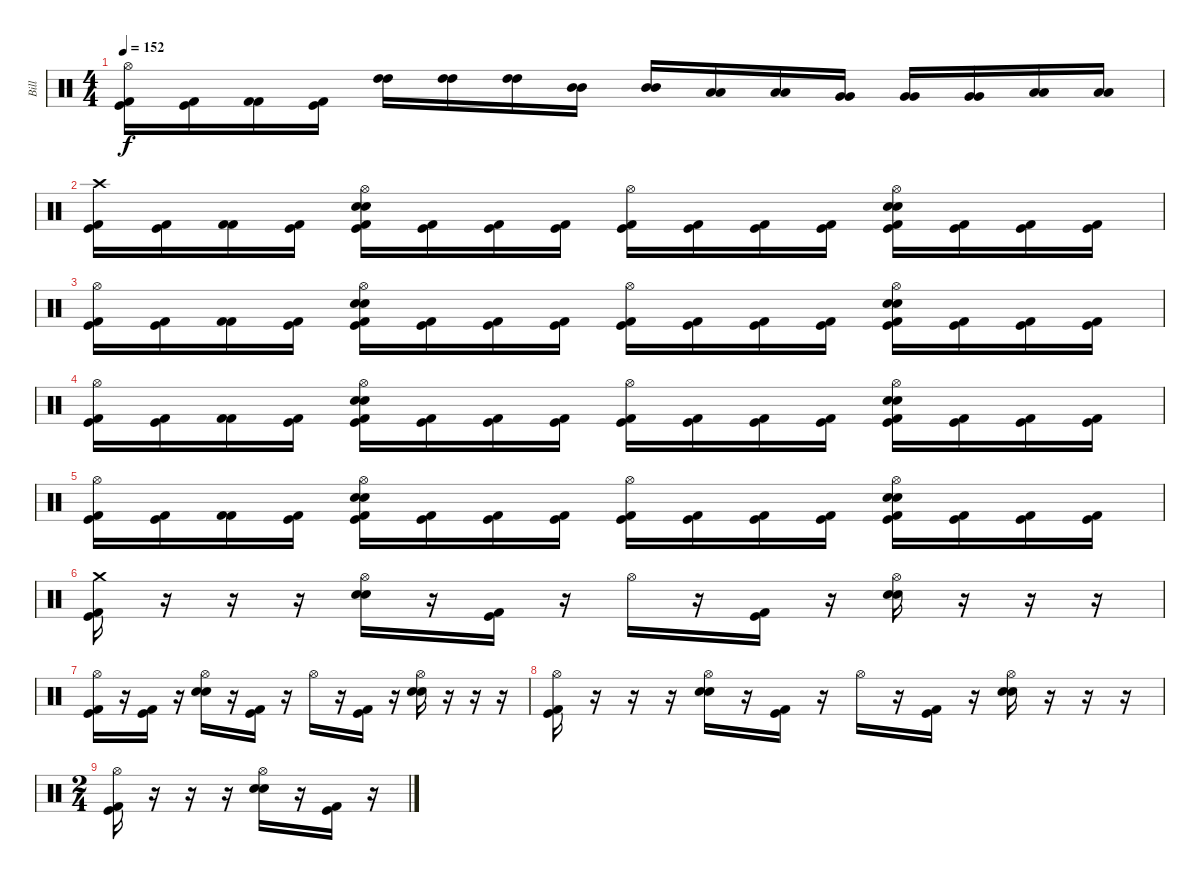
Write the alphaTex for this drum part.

\track ("Bill" "Bill") {instrument percussion}
\staff {score}
\articulation defaults
\ts (4 4)
\tempo 152
\clef neutral
\ks c
("Hi-Hat (open)" "Kick (hit) 2" "Kick (hit)").16{dy f} ("Kick (hit) 2" "Kick (hit)").16 ("Kick (hit) 2" "Kick (hit) 2").16 ("Kick (hit) 2" "Kick (hit)").16 ("High Tom (hit)" "High Tom (hit)").16 ("High Tom (hit)" "High Tom (hit)").16 ("High Tom (hit)" "High Tom (hit)").16 ("Mid Tom (hit)" "Mid Tom (hit)").16 ("Mid Tom (hit)" "Mid Tom (hit)").16 ("Low Tom (hit)" "Low Tom (hit)").16 ("Low Tom (hit)" "Low Tom (hit)").16 ("Very Low Tom (hit)" "Very Low Tom (hit)").16 ("Very Low Tom (hit)" "Very Low Tom (hit)").16 ("Very Low Tom (hit)" "Very Low Tom (hit)").16 ("Low Floor Tom (hit)" "Low Floor Tom (hit)").16 ("Low Floor Tom (hit)" "Low Floor Tom (hit)").16 |
("Crash high (hit)" "Kick (hit) 2" "Kick (hit)").16 ("Kick (hit) 2" "Kick (hit)").16 ("Kick (hit) 2" "Kick (hit) 2").16 ("Kick (hit) 2" "Kick (hit)").16 ("Hi-Hat (open)" "Snare (hit) 2" "Electric Snare (hit)" "Kick (hit) 2" "Kick (hit)").16 ("Kick (hit) 2" "Kick (hit)").16 ("Kick (hit) 2" "Kick (hit)").16 ("Kick (hit) 2" "Kick (hit)").16 ("Hi-Hat (open)" "Kick (hit) 2" "Kick (hit)").16 ("Kick (hit) 2" "Kick (hit)").16 ("Kick (hit) 2" "Kick (hit)").16 ("Kick (hit) 2" "Kick (hit)").16 ("Hi-Hat (open)" "Snare (hit) 2" "Electric Snare (hit)" "Kick (hit) 2" "Kick (hit)").16 ("Kick (hit) 2" "Kick (hit)").16 ("Kick (hit) 2" "Kick (hit)").16 ("Kick (hit) 2" "Kick (hit)").16 |
("Hi-Hat (open)" "Kick (hit) 2" "Kick (hit)").16 ("Kick (hit) 2" "Kick (hit)").16 ("Kick (hit) 2" "Kick (hit) 2").16 ("Kick (hit) 2" "Kick (hit)").16 ("Hi-Hat (open)" "Snare (hit) 2" "Electric Snare (hit)" "Kick (hit) 2" "Kick (hit)").16 ("Kick (hit) 2" "Kick (hit)").16 ("Kick (hit) 2" "Kick (hit)").16 ("Kick (hit) 2" "Kick (hit)").16 ("Hi-Hat (open)" "Kick (hit) 2" "Kick (hit)").16 ("Kick (hit) 2" "Kick (hit)").16 ("Kick (hit) 2" "Kick (hit)").16 ("Kick (hit) 2" "Kick (hit)").16 ("Hi-Hat (open)" "Snare (hit) 2" "Electric Snare (hit)" "Kick (hit) 2" "Kick (hit)").16 ("Kick (hit) 2" "Kick (hit)").16 ("Kick (hit) 2" "Kick (hit)").16 ("Kick (hit) 2" "Kick (hit)").16 |
("Hi-Hat (open)" "Kick (hit) 2" "Kick (hit)").16 ("Kick (hit) 2" "Kick (hit)").16 ("Kick (hit) 2" "Kick (hit) 2").16 ("Kick (hit) 2" "Kick (hit)").16 ("Hi-Hat (open)" "Snare (hit) 2" "Electric Snare (hit)" "Kick (hit) 2" "Kick (hit)").16 ("Kick (hit) 2" "Kick (hit)").16 ("Kick (hit) 2" "Kick (hit)").16 ("Kick (hit) 2" "Kick (hit)").16 ("Hi-Hat (open)" "Kick (hit) 2" "Kick (hit)").16 ("Kick (hit) 2" "Kick (hit)").16 ("Kick (hit) 2" "Kick (hit)").16 ("Kick (hit) 2" "Kick (hit)").16 ("Hi-Hat (open)" "Snare (hit) 2" "Electric Snare (hit)" "Kick (hit) 2" "Kick (hit)").16 ("Kick (hit) 2" "Kick (hit)").16 ("Kick (hit) 2" "Kick (hit)").16 ("Kick (hit) 2" "Kick (hit)").16 |
("Hi-Hat (open)" "Kick (hit) 2" "Kick (hit)").16 ("Kick (hit) 2" "Kick (hit)").16 ("Kick (hit) 2" "Kick (hit) 2").16 ("Kick (hit) 2" "Kick (hit)").16 ("Hi-Hat (open)" "Snare (hit) 2" "Electric Snare (hit)" "Kick (hit) 2" "Kick (hit)").16 ("Kick (hit) 2" "Kick (hit)").16 ("Kick (hit) 2" "Kick (hit)").16 ("Kick (hit) 2" "Kick (hit)").16 ("Hi-Hat (open)" "Kick (hit) 2" "Kick (hit)").16 ("Kick (hit) 2" "Kick (hit)").16 ("Kick (hit) 2" "Kick (hit)").16 ("Kick (hit) 2" "Kick (hit)").16 ("Hi-Hat (open)" "Snare (hit) 2" "Electric Snare (hit)" "Kick (hit) 2" "Kick (hit)").16 ("Kick (hit) 2" "Kick (hit)").16 ("Kick (hit) 2" "Kick (hit)").16 ("Kick (hit) 2" "Kick (hit)").16 |
("Crash medium (hit)" "Kick (hit)" "Kick (hit) 2").16 r.16 r.16 r.16 ("Hi-Hat (open)" "Snare (hit) 2" "Electric Snare (hit)").16 r.16 ("Kick (hit)" "Kick (hit) 2").16 r.16 "Hi-Hat (open)".16 r.16 ("Kick (hit)" "Kick (hit) 2").16 r.16 ("Hi-Hat (open)" "Snare (hit) 2" "Electric Snare (hit)").16 r.16 r.16 r.16 |
("Hi-Hat (open)" "Kick (hit)" "Kick (hit) 2").16 r.16 ("Kick (hit)" "Kick (hit) 2").16 r.16 ("Hi-Hat (open)" "Snare (hit) 2" "Electric Snare (hit)").16 r.16 ("Kick (hit)" "Kick (hit) 2").16 r.16 "Hi-Hat (open)".16 r.16 ("Kick (hit)" "Kick (hit) 2").16 r.16 ("Hi-Hat (open)" "Snare (hit) 2" "Electric Snare (hit)").16 r.16 r.16 r.16 |
("Hi-Hat (open)" "Kick (hit)" "Kick (hit) 2").16 r.16 r.16 r.16 ("Hi-Hat (open)" "Snare (hit) 2" "Electric Snare (hit)").16 r.16 ("Kick (hit)" "Kick (hit) 2").16 r.16 "Hi-Hat (open)".16 r.16 ("Kick (hit)" "Kick (hit) 2").16 r.16 ("Hi-Hat (open)" "Snare (hit) 2" "Electric Snare (hit)").16 r.16 r.16 r.16 |
\ts (2 4)
("Hi-Hat (open)" "Kick (hit)" "Kick (hit) 2").16 r.16 r.16 r.16 ("Hi-Hat (open)" "Snare (hit) 2" "Electric Snare (hit)").16 r.16 ("Kick (hit)" "Kick (hit) 2").16 r.16
